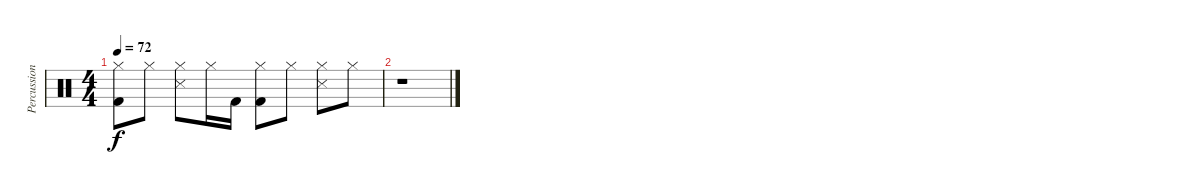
\track ("Percussion" "Percussion") {instrument percussion}
\staff {score}
\articulation defaults
\ts (4 4)
\tempo 72
\clef neutral
\ks c
("Hi-Hat (closed)" "Kick (hit) 2").8{dy f} "Hi-Hat (closed)".8 ("Hi-Hat (closed)" "Metronome (hit)").8 "Hi-Hat (closed)".16 "Kick (hit) 2".16 ("Hi-Hat (closed)" "Kick (hit) 2").8 "Hi-Hat (closed)".8 ("Hi-Hat (closed)" "Metronome (hit)").8 "Hi-Hat (closed)".8 |
r.1
